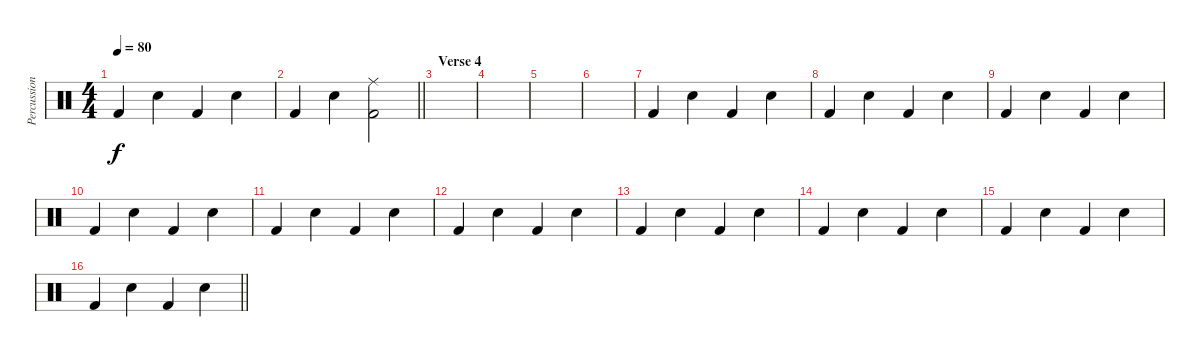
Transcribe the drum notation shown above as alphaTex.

\track ("Percussion" "Percussion") {instrument percussion}
\staff {score}
\articulation defaults
\ts (4 4)
\tempo 80
\clef neutral
\ks c "Kick (hit) 2".4{dy f} "Snare (hit) 2".4 "Kick (hit) 2".4 "Snare (hit) 2".4
|
\barLineRight lightlight "Kick (hit) 2".4 "Snare (hit) 2".4
("Ride (middle)" "Kick (hit) 2").2 |
\section ("" "Verse 4")
|
|
|
|
"Kick (hit) 2".4 "Snare (hit) 2".4 "Kick (hit) 2".4 "Snare (hit) 2".4 |
"Kick (hit) 2".4 "Snare (hit) 2".4 "Kick (hit) 2".4 "Snare (hit) 2".4 |
"Kick (hit) 2".4 "Snare (hit) 2".4 "Kick (hit) 2".4 "Snare (hit) 2".4 |
"Kick (hit) 2".4 "Snare (hit) 2".4 "Kick (hit) 2".4 "Snare (hit) 2".4 |
"Kick (hit) 2".4 "Snare (hit) 2".4 "Kick (hit) 2".4 "Snare (hit) 2".4 |
"Kick (hit) 2".4 "Snare (hit) 2".4 "Kick (hit) 2".4 "Snare (hit) 2".4 |
"Kick (hit) 2".4 "Snare (hit) 2".4 "Kick (hit) 2".4 "Snare (hit) 2".4 |
"Kick (hit) 2".4 "Snare (hit) 2".4 "Kick (hit) 2".4 "Snare (hit) 2".4 |
"Kick (hit) 2".4 "Snare (hit) 2".4 "Kick (hit) 2".4 "Snare (hit) 2".4 |
\barLineRight lightlight "Kick (hit) 2".4 "Snare (hit) 2".4 "Kick (hit) 2".4 "Snare (hit) 2".4
